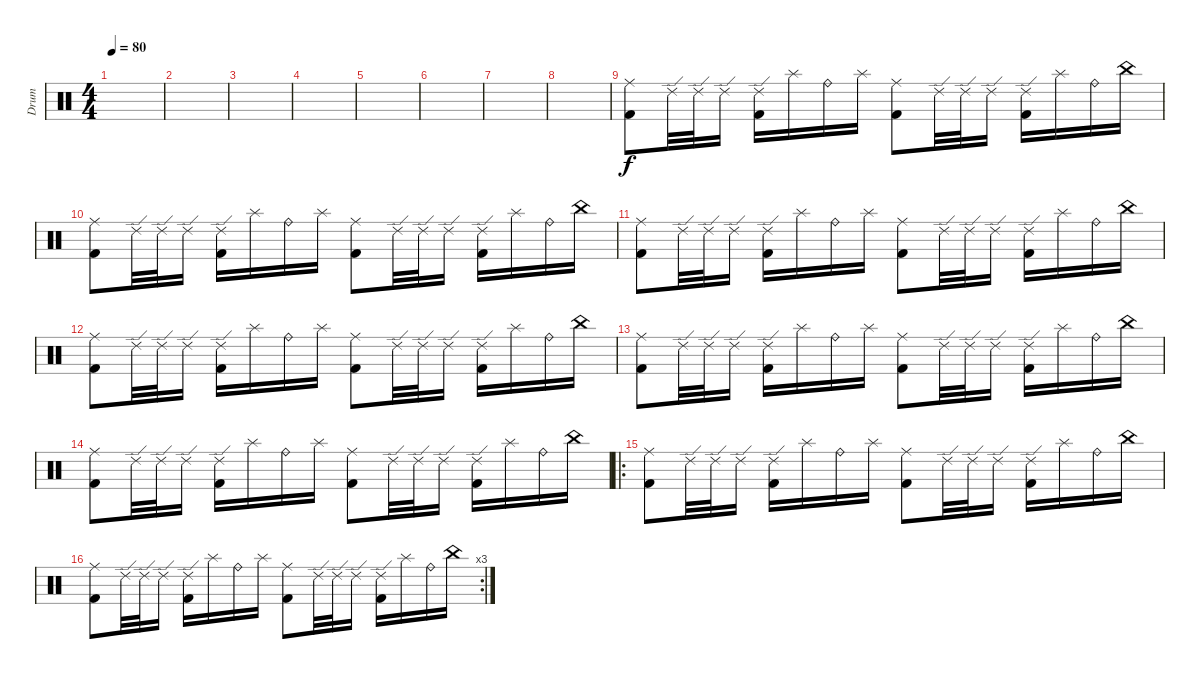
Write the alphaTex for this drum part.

\track ("Drum" "Drum") {instrument percussion}
\staff {score}
\articulation defaults
\ts (4 4)
\tempo 80
\clef neutral
\ks c
|
|
|
|
|
|
|
|
\section ("" "")
("Ride (middle)" "Kick (hit) 2").8{volume 0} "Ride (edge) 2".32{volume 6} "Ride (edge) 2".32 "Ride (edge) 2".16 ("Ride (edge) 2" "Kick (hit) 2").16 "Splash (hit)".16 "Ride (bell)".16 "Splash (hit)".16 ("Ride (middle)" "Kick (hit) 2").8 "Ride (edge) 2".32 "Ride (edge) 2".32 "Ride (edge) 2".16 ("Ride (edge) 2" "Kick (hit) 2").16 "Splash (hit)".16 "Ride (bell)".16 "China (hit)".16 |
("Ride (middle)" "Kick (hit) 2").8 "Ride (edge) 2".32 "Ride (edge) 2".32 "Ride (edge) 2".16 ("Ride (edge) 2" "Kick (hit) 2").16 "Splash (hit)".16 "Ride (bell)".16 "Splash (hit)".16 ("Ride (middle)" "Kick (hit) 2").8 "Ride (edge) 2".32 "Ride (edge) 2".32 "Ride (edge) 2".16 ("Ride (edge) 2" "Kick (hit) 2").16 "Splash (hit)".16 "Ride (bell)".16 "China (hit)".16 |
("Ride (middle)" "Kick (hit) 2").8 "Ride (edge) 2".32{volume 10} "Ride (edge) 2".32 "Ride (edge) 2".16 ("Ride (edge) 2" "Kick (hit) 2").16 "Splash (hit)".16 "Ride (bell)".16 "Splash (hit)".16 ("Ride (middle)" "Kick (hit) 2").8 "Ride (edge) 2".32 "Ride (edge) 2".32 "Ride (edge) 2".16 ("Ride (edge) 2" "Kick (hit) 2").16 "Splash (hit)".16 "Ride (bell)".16 "China (hit)".16 |
("Ride (middle)" "Kick (hit) 2").8 "Ride (edge) 2".32 "Ride (edge) 2".32 "Ride (edge) 2".16 ("Ride (edge) 2" "Kick (hit) 2").16 "Splash (hit)".16 "Ride (bell)".16 "Splash (hit)".16 ("Ride (middle)" "Kick (hit) 2").8 "Ride (edge) 2".32 "Ride (edge) 2".32 "Ride (edge) 2".16 ("Ride (edge) 2" "Kick (hit) 2").16 "Splash (hit)".16 "Ride (bell)".16 "China (hit)".16 |
("Ride (middle)" "Kick (hit) 2").8 "Ride (edge) 2".32{volume 13} "Ride (edge) 2".32 "Ride (edge) 2".16 ("Ride (edge) 2" "Kick (hit) 2").16 "Splash (hit)".16 "Ride (bell)".16 "Splash (hit)".16 ("Ride (middle)" "Kick (hit) 2").8 "Ride (edge) 2".32 "Ride (edge) 2".32 "Ride (edge) 2".16 ("Ride (edge) 2" "Kick (hit) 2").16 "Splash (hit)".16 "Ride (bell)".16 "China (hit)".16 |
("Ride (middle)" "Kick (hit) 2").8 "Ride (edge) 2".32 "Ride (edge) 2".32 "Ride (edge) 2".16 ("Ride (edge) 2" "Kick (hit) 2").16 "Splash (hit)".16 "Ride (bell)".16 "Splash (hit)".16 ("Ride (middle)" "Kick (hit) 2").8 "Ride (edge) 2".32 "Ride (edge) 2".32 "Ride (edge) 2".16 ("Ride (edge) 2" "Kick (hit) 2").16 "Splash (hit)".16 "Ride (bell)".16 "China (hit)".16 |
\ro
("Ride (middle)" "Kick (hit) 2").8{volume 14} "Ride (edge) 2".32 "Ride (edge) 2".32 "Ride (edge) 2".16 ("Ride (edge) 2" "Kick (hit) 2").16 "Splash (hit)".16 "Ride (bell)".16 "Splash (hit)".16 ("Ride (middle)" "Kick (hit) 2").8 "Ride (edge) 2".32 "Ride (edge) 2".32 "Ride (edge) 2".16 ("Ride (edge) 2" "Kick (hit) 2").16 "Splash (hit)".16 "Ride (bell)".16 "China (hit)".16 |
\rc 3
("Ride (middle)" "Kick (hit) 2").8 "Ride (edge) 2".32 "Ride (edge) 2".32 "Ride (edge) 2".16 ("Ride (edge) 2" "Kick (hit) 2").16 "Splash (hit)".16 "Ride (bell)".16 "Splash (hit)".16 ("Ride (middle)" "Kick (hit) 2").8 "Ride (edge) 2".32 "Ride (edge) 2".32 "Ride (edge) 2".16 ("Ride (edge) 2" "Kick (hit) 2").16 "Splash (hit)".16 "Ride (bell)".16 "China (hit)".16
